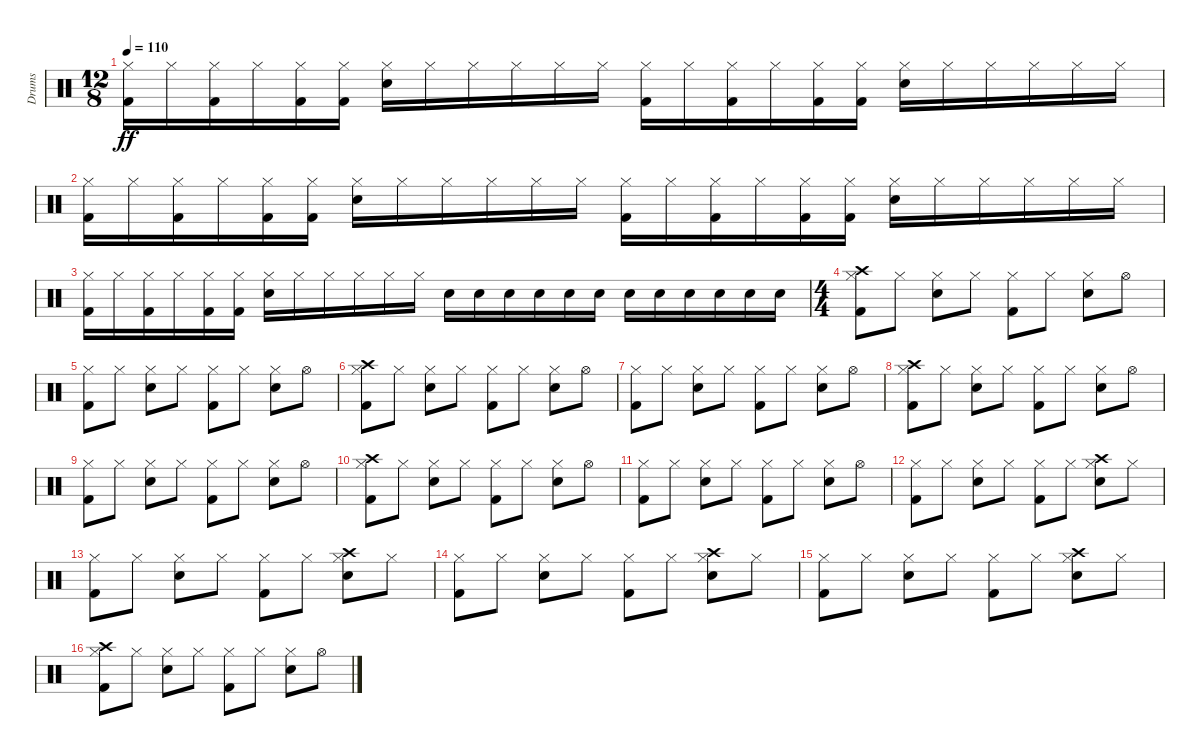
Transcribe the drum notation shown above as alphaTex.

\track ("Drums" "Drums") {instrument percussion}
\staff {score}
\articulation defaults
\ts (12 8)
\tempo 110
\clef neutral
\ks c
("Kick (hit) 2" "Hi-Hat (closed)").16{dy ff} "Hi-Hat (closed)".16 ("Kick (hit) 2" "Hi-Hat (closed)").16 "Hi-Hat (closed)".16 ("Kick (hit) 2" "Hi-Hat (closed)").16 ("Kick (hit) 2" "Hi-Hat (closed)").16 ("Snare (hit) 2" "Hi-Hat (closed)").16 "Hi-Hat (closed)".16 "Hi-Hat (closed)".16 "Hi-Hat (closed)".16 "Hi-Hat (closed)".16 "Hi-Hat (closed)".16 ("Kick (hit) 2" "Hi-Hat (closed)").16 "Hi-Hat (closed)".16 ("Kick (hit) 2" "Hi-Hat (closed)").16 "Hi-Hat (closed)".16 ("Kick (hit) 2" "Hi-Hat (closed)").16 ("Kick (hit) 2" "Hi-Hat (closed)").16 ("Snare (hit) 2" "Hi-Hat (closed)").16 "Hi-Hat (closed)".16 "Hi-Hat (closed)".16 "Hi-Hat (closed)".16 "Hi-Hat (closed)".16 "Hi-Hat (closed)".16 |
("Kick (hit) 2" "Hi-Hat (closed)").16 "Hi-Hat (closed)".16 ("Kick (hit) 2" "Hi-Hat (closed)").16 "Hi-Hat (closed)".16 ("Kick (hit) 2" "Hi-Hat (closed)").16 ("Kick (hit) 2" "Hi-Hat (closed)").16 ("Snare (hit) 2" "Hi-Hat (closed)").16 "Hi-Hat (closed)".16 "Hi-Hat (closed)".16 "Hi-Hat (closed)".16 "Hi-Hat (closed)".16 "Hi-Hat (closed)".16 ("Kick (hit) 2" "Hi-Hat (closed)").16 "Hi-Hat (closed)".16 ("Kick (hit) 2" "Hi-Hat (closed)").16 "Hi-Hat (closed)".16 ("Kick (hit) 2" "Hi-Hat (closed)").16 ("Kick (hit) 2" "Hi-Hat (closed)").16 ("Snare (hit) 2" "Hi-Hat (closed)").16 "Hi-Hat (closed)".16 "Hi-Hat (closed)".16 "Hi-Hat (closed)".16 "Hi-Hat (closed)".16 "Hi-Hat (closed)".16 |
("Kick (hit) 2" "Hi-Hat (closed)").16 "Hi-Hat (closed)".16 ("Kick (hit) 2" "Hi-Hat (closed)").16 "Hi-Hat (closed)".16 ("Kick (hit) 2" "Hi-Hat (closed)").16 ("Kick (hit) 2" "Hi-Hat (closed)").16 ("Snare (hit) 2" "Hi-Hat (closed)").16 "Hi-Hat (closed)".16 "Hi-Hat (closed)".16 "Hi-Hat (closed)".16 "Hi-Hat (closed)".16 "Hi-Hat (closed)".16 "Snare (hit) 2".16 "Snare (hit) 2".16 "Snare (hit) 2".16 "Snare (hit) 2".16 "Snare (hit) 2".16 "Snare (hit) 2".16 "Snare (hit) 2".16 "Snare (hit) 2".16 "Snare (hit) 2".16 "Snare (hit) 2".16 "Snare (hit) 2".16 "Snare (hit) 2".16 |
\ts (4 4)
("Kick (hit) 2" "Hi-Hat (closed)" "Crash high (hit)").8 "Hi-Hat (closed)".8 ("Snare (hit) 2" "Hi-Hat (closed)").8 "Hi-Hat (closed)".8 ("Kick (hit) 2" "Hi-Hat (closed)").8 "Hi-Hat (closed)".8 ("Snare (hit) 2" "Hi-Hat (closed)").8 "Hi-Hat (open)".8 |
("Kick (hit) 2" "Hi-Hat (closed)").8 "Hi-Hat (closed)".8 ("Snare (hit) 2" "Hi-Hat (closed)").8 "Hi-Hat (closed)".8 ("Kick (hit) 2" "Hi-Hat (closed)").8 "Hi-Hat (closed)".8 ("Snare (hit) 2" "Hi-Hat (closed)").8 "Hi-Hat (open)".8 |
("Kick (hit) 2" "Hi-Hat (closed)" "Crash high (hit)").8 "Hi-Hat (closed)".8 ("Snare (hit) 2" "Hi-Hat (closed)").8 "Hi-Hat (closed)".8 ("Kick (hit) 2" "Hi-Hat (closed)").8 "Hi-Hat (closed)".8 ("Snare (hit) 2" "Hi-Hat (closed)").8 "Hi-Hat (open)".8 |
("Kick (hit) 2" "Hi-Hat (closed)").8 "Hi-Hat (closed)".8 ("Snare (hit) 2" "Hi-Hat (closed)").8 "Hi-Hat (closed)".8 ("Kick (hit) 2" "Hi-Hat (closed)").8 "Hi-Hat (closed)".8 ("Snare (hit) 2" "Hi-Hat (closed)").8 "Hi-Hat (open)".8 |
("Kick (hit) 2" "Hi-Hat (closed)" "Crash high (hit)").8 "Hi-Hat (closed)".8 ("Snare (hit) 2" "Hi-Hat (closed)").8 "Hi-Hat (closed)".8 ("Kick (hit) 2" "Hi-Hat (closed)").8 "Hi-Hat (closed)".8 ("Snare (hit) 2" "Hi-Hat (closed)").8 "Hi-Hat (open)".8 |
("Kick (hit) 2" "Hi-Hat (closed)").8 "Hi-Hat (closed)".8 ("Snare (hit) 2" "Hi-Hat (closed)").8 "Hi-Hat (closed)".8 ("Kick (hit) 2" "Hi-Hat (closed)").8 "Hi-Hat (closed)".8 ("Snare (hit) 2" "Hi-Hat (closed)").8 "Hi-Hat (open)".8 |
("Kick (hit) 2" "Hi-Hat (closed)" "Crash high (hit)").8 "Hi-Hat (closed)".8 ("Snare (hit) 2" "Hi-Hat (closed)").8 "Hi-Hat (closed)".8 ("Kick (hit) 2" "Hi-Hat (closed)").8 "Hi-Hat (closed)".8 ("Snare (hit) 2" "Hi-Hat (closed)").8 "Hi-Hat (open)".8 |
("Kick (hit) 2" "Hi-Hat (closed)").8 "Hi-Hat (closed)".8 ("Snare (hit) 2" "Hi-Hat (closed)").8 "Hi-Hat (closed)".8 ("Kick (hit) 2" "Hi-Hat (closed)").8 "Hi-Hat (closed)".8 ("Snare (hit) 2" "Hi-Hat (closed)").8 "Hi-Hat (open)".8 |
("Kick (hit) 2" "Hi-Hat (closed)").8 "Hi-Hat (closed)".8 ("Snare (hit) 2" "Hi-Hat (closed)").8 "Hi-Hat (closed)".8 ("Kick (hit) 2" "Hi-Hat (closed)").8 "Hi-Hat (closed)".8 ("Snare (hit) 2" "Hi-Hat (closed)" "Crash high (hit)").8 "Hi-Hat (closed)".8 |
("Kick (hit) 2" "Hi-Hat (closed)").8 "Hi-Hat (closed)".8 ("Snare (hit) 2" "Hi-Hat (closed)").8 "Hi-Hat (closed)".8 ("Kick (hit) 2" "Hi-Hat (closed)").8 "Hi-Hat (closed)".8 ("Snare (hit) 2" "Hi-Hat (closed)" "Crash high (hit)").8 "Hi-Hat (closed)".8 |
("Kick (hit) 2" "Hi-Hat (closed)").8 "Hi-Hat (closed)".8 ("Snare (hit) 2" "Hi-Hat (closed)").8 "Hi-Hat (closed)".8 ("Kick (hit) 2" "Hi-Hat (closed)").8 "Hi-Hat (closed)".8 ("Snare (hit) 2" "Hi-Hat (closed)" "Crash high (hit)").8 "Hi-Hat (closed)".8 |
("Kick (hit) 2" "Hi-Hat (closed)").8 "Hi-Hat (closed)".8 ("Snare (hit) 2" "Hi-Hat (closed)").8 "Hi-Hat (closed)".8 ("Kick (hit) 2" "Hi-Hat (closed)").8 "Hi-Hat (closed)".8 ("Snare (hit) 2" "Hi-Hat (closed)" "Crash high (hit)").8 "Hi-Hat (closed)".8 |
("Kick (hit) 2" "Hi-Hat (closed)" "Crash high (hit)").8 "Hi-Hat (closed)".8 ("Snare (hit) 2" "Hi-Hat (closed)").8 "Hi-Hat (closed)".8 ("Kick (hit) 2" "Hi-Hat (closed)").8 "Hi-Hat (closed)".8 ("Snare (hit) 2" "Hi-Hat (closed)").8 "Hi-Hat (open)".8
